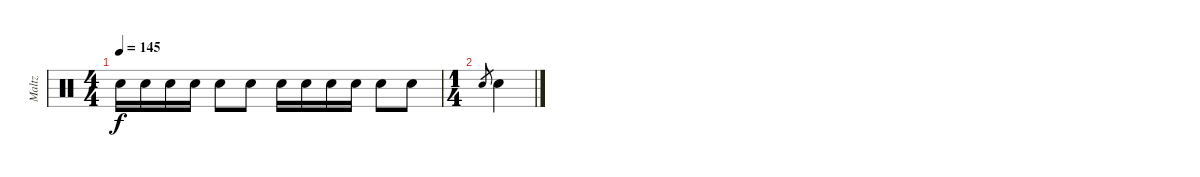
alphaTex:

\track ("Maltz" "Maltz") {instrument percussion}
\staff {score}
\articulation defaults
\ts (4 4)
\tempo 145
\clef neutral
\ks c "Electric Snare (hit)".16{dy f} "Electric Snare (hit)".16 "Electric Snare (hit)".16 "Electric Snare (hit)".16 "Electric Snare (hit)".8 "Electric Snare (hit)".8 "Electric Snare (hit)".16 "Electric Snare (hit)".16 "Electric Snare (hit)".16 "Electric Snare (hit)".16 "Electric Snare (hit)".8 "Electric Snare (hit)".8
|
\ts (1 4)
"Electric Snare (hit)".8{gr} "Electric Snare (hit)".4
